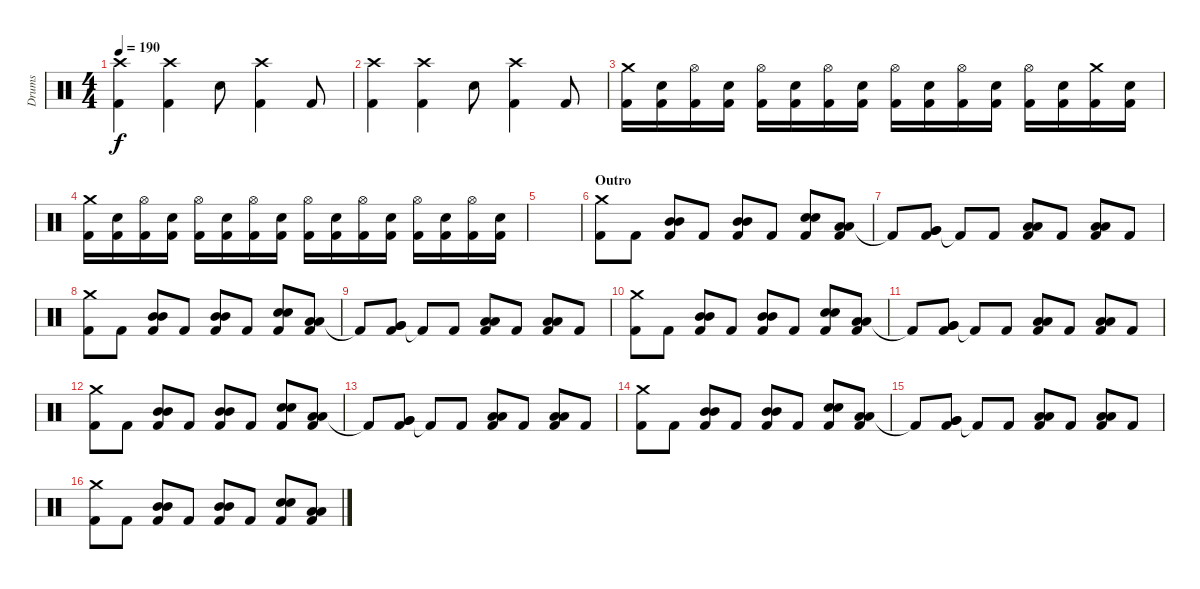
\track ("Drums" "Drums") {instrument percussion}
\staff {score}
\articulation defaults
\ts (4 4)
\tempo 190
\clef neutral
\ks c
("Crash high (hit)" "Kick (hit) 2").4{dy f} ("Crash high (hit)" "Kick (hit) 2").4 "Snare (hit) 2".8 ("Crash high (hit)" "Kick (hit) 2").4 "Kick (hit) 2".8 |
("Crash high (hit)" "Kick (hit) 2").4 ("Crash high (hit)" "Kick (hit) 2").4 "Snare (hit) 2".8 ("Crash high (hit)" "Kick (hit) 2").4 "Kick (hit) 2".8 |
("Crash medium (hit)" "Kick (hit) 2").16 ("Snare (hit) 2" "Kick (hit) 2").16 ("Hi-Hat (open)" "Kick (hit) 2").16 ("Snare (hit) 2" "Kick (hit) 2").16 ("Hi-Hat (open)" "Kick (hit) 2").16 ("Snare (hit) 2" "Kick (hit) 2").16 ("Hi-Hat (open)" "Kick (hit) 2").16 ("Snare (hit) 2" "Kick (hit) 2").16 ("Hi-Hat (open)" "Kick (hit) 2").16 ("Snare (hit) 2" "Kick (hit) 2").16 ("Hi-Hat (open)" "Kick (hit) 2").16 ("Snare (hit) 2" "Kick (hit) 2").16 ("Hi-Hat (open)" "Kick (hit) 2").16 ("Snare (hit) 2" "Kick (hit) 2").16 ("Crash medium (hit)" "Kick (hit) 2").16 ("Snare (hit) 2" "Kick (hit) 2").16 |
("Crash medium (hit)" "Kick (hit) 2").16 ("Snare (hit) 2" "Kick (hit) 2").16 ("Hi-Hat (open)" "Kick (hit) 2").16 ("Snare (hit) 2" "Kick (hit) 2").16 ("Hi-Hat (open)" "Kick (hit) 2").16 ("Snare (hit) 2" "Kick (hit) 2").16 ("Hi-Hat (open)" "Kick (hit) 2").16 ("Snare (hit) 2" "Kick (hit) 2").16 ("Hi-Hat (open)" "Kick (hit) 2").16 ("Snare (hit) 2" "Kick (hit) 2").16 ("Hi-Hat (open)" "Kick (hit) 2").16 ("Snare (hit) 2" "Kick (hit) 2").16 ("Hi-Hat (open)" "Kick (hit) 2").16 ("Snare (hit) 2" "Kick (hit) 2").16 ("Hi-Hat (open)" "Kick (hit) 2").16 ("Snare (hit) 2" "Kick (hit) 2").16 |
|
\section ("" "Outro")
("Crash medium (hit)" "Kick (hit) 2").8 "Kick (hit) 2".8 ("Mid Tom (hit)" "Mid Tom (hit)" "Kick (hit) 2").8 "Kick (hit) 2".8 ("Mid Tom (hit)" "Mid Tom (hit)" "Kick (hit) 2").8 "Kick (hit) 2".8 ("Snare (hit) 2" "Snare (hit) 2" "Kick (hit) 2").8 ("Low Tom (hit)" "Low Tom (hit)" "Kick (hit) 2").8 |
"Kick (hit) 2"{t}.8 ("Very Low Tom (hit)" "Very Low Tom (hit)" "Kick (hit) 2").8 "Kick (hit) 2"{t}.8 "Kick (hit) 2".8 ("Low Floor Tom (hit)" "Low Floor Tom (hit)" "Kick (hit) 2").8 "Kick (hit) 2".8 ("Low Floor Tom (hit)" "Low Floor Tom (hit)" "Kick (hit) 2").8 "Kick (hit) 2".8 |
("Crash medium (hit)" "Kick (hit) 2").8 "Kick (hit) 2".8 ("Mid Tom (hit)" "Mid Tom (hit)" "Kick (hit) 2").8 "Kick (hit) 2".8 ("Mid Tom (hit)" "Mid Tom (hit)" "Kick (hit) 2").8 "Kick (hit) 2".8 ("Snare (hit) 2" "Snare (hit) 2" "Kick (hit) 2").8 ("Low Tom (hit)" "Low Tom (hit)" "Kick (hit) 2").8 |
"Kick (hit) 2"{t}.8 ("Very Low Tom (hit)" "Very Low Tom (hit)" "Kick (hit) 2").8 "Kick (hit) 2"{t}.8 "Kick (hit) 2".8 ("Low Floor Tom (hit)" "Low Floor Tom (hit)" "Kick (hit) 2").8 "Kick (hit) 2".8 ("Low Floor Tom (hit)" "Low Floor Tom (hit)" "Kick (hit) 2").8 "Kick (hit) 2".8 |
("Crash medium (hit)" "Kick (hit) 2").8 "Kick (hit) 2".8 ("Mid Tom (hit)" "Mid Tom (hit)" "Kick (hit) 2").8 "Kick (hit) 2".8 ("Mid Tom (hit)" "Mid Tom (hit)" "Kick (hit) 2").8 "Kick (hit) 2".8 ("Snare (hit) 2" "Snare (hit) 2" "Kick (hit) 2").8 ("Low Tom (hit)" "Low Tom (hit)" "Kick (hit) 2").8 |
"Kick (hit) 2"{t}.8 ("Very Low Tom (hit)" "Very Low Tom (hit)" "Kick (hit) 2").8 "Kick (hit) 2"{t}.8 "Kick (hit) 2".8 ("Low Floor Tom (hit)" "Low Floor Tom (hit)" "Kick (hit) 2").8 "Kick (hit) 2".8 ("Low Floor Tom (hit)" "Low Floor Tom (hit)" "Kick (hit) 2").8 "Kick (hit) 2".8 |
("Crash medium (hit)" "Kick (hit) 2").8 "Kick (hit) 2".8 ("Mid Tom (hit)" "Mid Tom (hit)" "Kick (hit) 2").8 "Kick (hit) 2".8 ("Mid Tom (hit)" "Mid Tom (hit)" "Kick (hit) 2").8 "Kick (hit) 2".8 ("Snare (hit) 2" "Snare (hit) 2" "Kick (hit) 2").8 ("Low Tom (hit)" "Low Tom (hit)" "Kick (hit) 2").8 |
"Kick (hit) 2"{t}.8 ("Very Low Tom (hit)" "Very Low Tom (hit)" "Kick (hit) 2").8 "Kick (hit) 2"{t}.8 "Kick (hit) 2".8 ("Low Floor Tom (hit)" "Low Floor Tom (hit)" "Kick (hit) 2").8 "Kick (hit) 2".8 ("Low Floor Tom (hit)" "Low Floor Tom (hit)" "Kick (hit) 2").8 "Kick (hit) 2".8 |
("Crash medium (hit)" "Kick (hit) 2").8 "Kick (hit) 2".8 ("Mid Tom (hit)" "Mid Tom (hit)" "Kick (hit) 2").8 "Kick (hit) 2".8 ("Mid Tom (hit)" "Mid Tom (hit)" "Kick (hit) 2").8 "Kick (hit) 2".8 ("Snare (hit) 2" "Snare (hit) 2" "Kick (hit) 2").8 ("Low Tom (hit)" "Low Tom (hit)" "Kick (hit) 2").8 |
"Kick (hit) 2"{t}.8 ("Very Low Tom (hit)" "Very Low Tom (hit)" "Kick (hit) 2").8 "Kick (hit) 2"{t}.8 "Kick (hit) 2".8 ("Low Floor Tom (hit)" "Low Floor Tom (hit)" "Kick (hit) 2").8 "Kick (hit) 2".8 ("Low Floor Tom (hit)" "Low Floor Tom (hit)" "Kick (hit) 2").8 "Kick (hit) 2".8 |
("Crash medium (hit)" "Kick (hit) 2").8 "Kick (hit) 2".8 ("Mid Tom (hit)" "Mid Tom (hit)" "Kick (hit) 2").8 "Kick (hit) 2".8 ("Mid Tom (hit)" "Mid Tom (hit)" "Kick (hit) 2").8 "Kick (hit) 2".8 ("Snare (hit) 2" "Snare (hit) 2" "Kick (hit) 2").8 ("Low Tom (hit)" "Low Tom (hit)" "Kick (hit) 2").8
